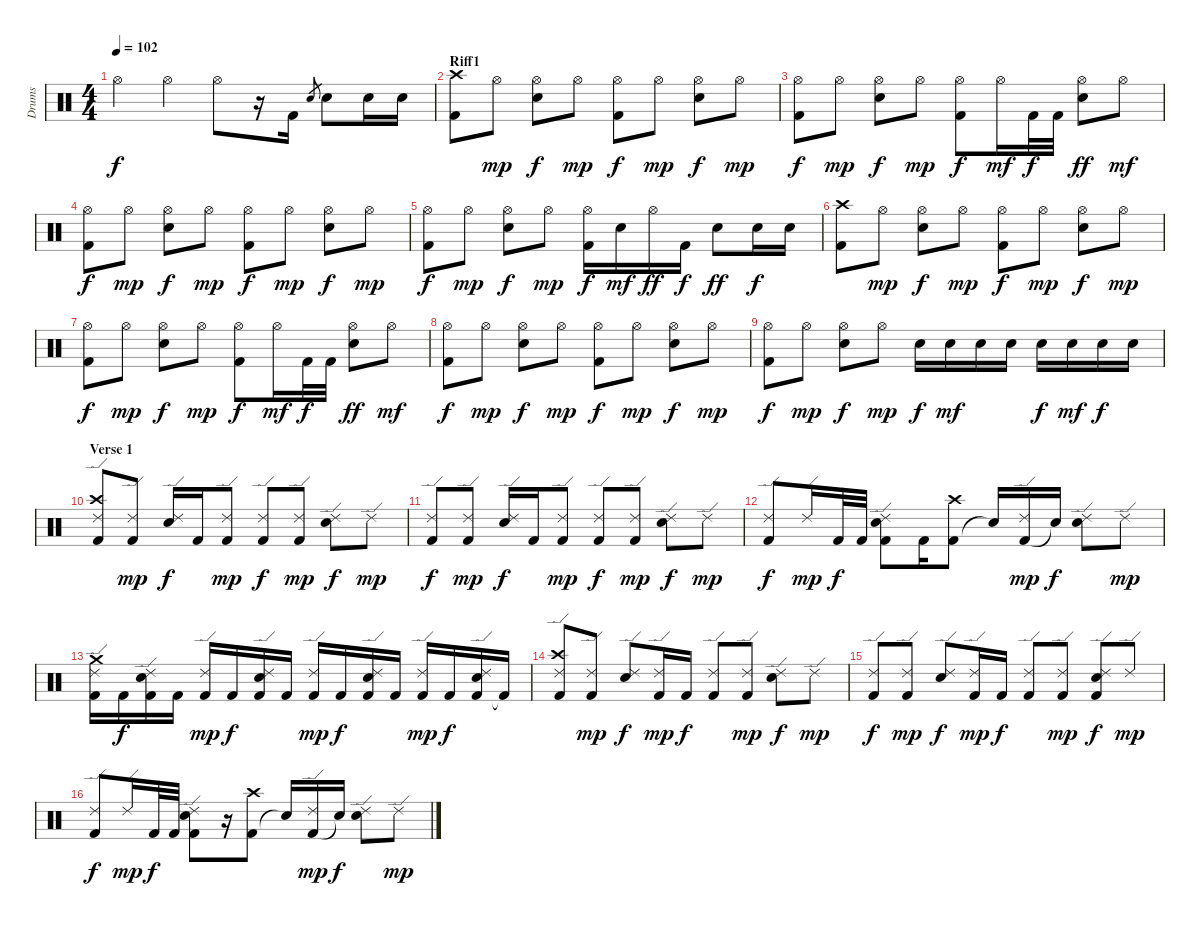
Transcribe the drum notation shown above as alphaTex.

\track ("Drums" "Drums") {instrument percussion}
\staff {score}
\articulation defaults
\ts (4 4)
\tempo 102
\clef neutral
\ks c "Hi-Hat (open)".4{dy f} "Hi-Hat (open)".4 "Hi-Hat (open)".8
r.16 "Kick (hit) 2".16 "Electric Snare (hit)".8{gr} "Electric Snare (hit)".8 "Electric Snare (hit)".16 "Electric Snare (hit)".16 |
\section ("" "Riff1")
("Kick (hit) 2" "Crash high (hit)").8 "Hi-Hat (open)".8{dy mp} ("Hi-Hat (open)" "Electric Snare (hit)").8{dy f} "Hi-Hat (open)".8{dy mp} ("Kick (hit) 2" "Hi-Hat (open)").8{dy f} "Hi-Hat (open)".8{dy mp} ("Hi-Hat (open)" "Electric Snare (hit)").8{dy f} "Hi-Hat (open)".8{dy mp} |
("Kick (hit) 2" "Hi-Hat (open)").8{dy f} "Hi-Hat (open)".8{dy mp} ("Hi-Hat (open)" "Electric Snare (hit)").8{dy f} "Hi-Hat (open)".8{dy mp} ("Kick (hit) 2" "Hi-Hat (open)").8{dy f} "Hi-Hat (open)".16{dy mf} "Kick (hit) 2".32{dy f} "Kick (hit) 2".32 ("Hi-Hat (open)" "Electric Snare (hit)").8{dy ff} "Hi-Hat (open)".8{dy mf} |
("Kick (hit) 2" "Hi-Hat (open)").8{dy f} "Hi-Hat (open)".8{dy mp} ("Hi-Hat (open)" "Electric Snare (hit)").8{dy f} "Hi-Hat (open)".8{dy mp} ("Kick (hit) 2" "Hi-Hat (open)").8{dy f} "Hi-Hat (open)".8{dy mp} ("Hi-Hat (open)" "Electric Snare (hit)").8{dy f} "Hi-Hat (open)".8{dy mp} |
("Kick (hit) 2" "Hi-Hat (open)").8{dy f} "Hi-Hat (open)".8{dy mp} ("Hi-Hat (open)" "Electric Snare (hit)").8{dy f} "Hi-Hat (open)".8{dy mp} ("Kick (hit) 2" "Hi-Hat (open)").16{dy f} "Electric Snare (hit)".16{dy mf} "Hi-Hat (open)".16{dy ff} "Kick (hit) 2".16{dy f} "Electric Snare (hit)".8{dy ff} "Electric Snare (hit)".16{dy f} "Electric Snare (hit)".16 |
("Kick (hit) 2" "Crash high (hit)").8 "Hi-Hat (open)".8{dy mp} ("Hi-Hat (open)" "Electric Snare (hit)").8{dy f} "Hi-Hat (open)".8{dy mp} ("Kick (hit) 2" "Hi-Hat (open)").8{dy f} "Hi-Hat (open)".8{dy mp} ("Hi-Hat (open)" "Electric Snare (hit)").8{dy f} "Hi-Hat (open)".8{dy mp} |
("Kick (hit) 2" "Hi-Hat (open)").8{dy f} "Hi-Hat (open)".8{dy mp} ("Hi-Hat (open)" "Electric Snare (hit)").8{dy f} "Hi-Hat (open)".8{dy mp} ("Kick (hit) 2" "Hi-Hat (open)").8{dy f} "Hi-Hat (open)".16{dy mf} "Kick (hit) 2".32{dy f} "Kick (hit) 2".32 ("Hi-Hat (open)" "Electric Snare (hit)").8{dy ff} "Hi-Hat (open)".8{dy mf} |
("Kick (hit) 2" "Hi-Hat (open)").8{dy f} "Hi-Hat (open)".8{dy mp} ("Hi-Hat (open)" "Electric Snare (hit)").8{dy f} "Hi-Hat (open)".8{dy mp} ("Kick (hit) 2" "Hi-Hat (open)").8{dy f} "Hi-Hat (open)".8{dy mp} ("Hi-Hat (open)" "Electric Snare (hit)").8{dy f} "Hi-Hat (open)".8{dy mp} |
("Kick (hit) 2" "Hi-Hat (open)").8{dy f} "Hi-Hat (open)".8{dy mp} ("Hi-Hat (open)" "Electric Snare (hit)").8{dy f} "Hi-Hat (open)".8{dy mp} "Electric Snare (hit)".16{dy f} "Electric Snare (hit)".16{dy mf} "Electric Snare (hit)".16 "Electric Snare (hit)".16 "Electric Snare (hit)".16{dy f} "Electric Snare (hit)".16{dy mf} "Electric Snare (hit)".16{dy f} "Electric Snare (hit)".16 |
\section ("" "Verse 1")
("Kick (hit) 2" "Ride (edge) 2" "Crash high (hit)").8 ("Kick (hit) 2" "Ride (edge) 2").8{dy mp} ("Ride (edge) 2" "Electric Snare (hit)").16{dy f} "Kick (hit) 2".16 ("Kick (hit) 2" "Ride (edge) 2").8{dy mp} ("Kick (hit) 2" "Ride (edge) 2").8{dy f} ("Kick (hit) 2" "Ride (edge) 2").8{dy mp} ("Ride (edge) 2" "Electric Snare (hit)").8{dy f} "Ride (edge) 2".8{dy mp} |
("Kick (hit) 2" "Ride (edge) 2").8{dy f} ("Kick (hit) 2" "Ride (edge) 2").8{dy mp} ("Ride (edge) 2" "Electric Snare (hit)").16{dy f} "Kick (hit) 2".16 ("Kick (hit) 2" "Ride (edge) 2").8{dy mp} ("Kick (hit) 2" "Ride (edge) 2").8{dy f} ("Kick (hit) 2" "Ride (edge) 2").8{dy mp} ("Ride (edge) 2" "Electric Snare (hit)").8{dy f} "Ride (edge) 2".8{dy mp} |
("Kick (hit) 2" "Ride (edge) 2").8{dy f} "Ride (edge) 2".16{dy mp} "Kick (hit) 2".32{dy f} "Kick (hit) 2".32 ("Kick (hit) 2" "Ride (edge) 2" "Electric Snare (hit)").8 "Kick (hit) 2".16 ("Kick (hit) 2" "Crash high (hit)").8 "Snare (hit)"{t}.16 ("Kick (hit) 2" "Ride (edge) 2").16{dy mp} "Snare (hit)"{t}.16{dy f} ("Ride (edge) 2" "Electric Snare (hit)").8 "Ride (edge) 2".8{dy mp} |
("Kick (hit) 2" "Ride (edge) 2" "Crash medium (hit)").16 "Kick (hit) 2".16{dy f} ("Kick (hit) 2" "Ride (edge) 2" "Electric Snare (hit)").16 "Kick (hit) 2".16 ("Kick (hit) 2" "Ride (edge) 2").16{dy mp} "Kick (hit) 2".16{dy f} ("Kick (hit) 2" "Ride (edge) 2" "Electric Snare (hit)").16 "Kick (hit) 2".16 ("Kick (hit) 2" "Ride (edge) 2").16{dy mp} "Kick (hit) 2".16{dy f} ("Kick (hit) 2" "Ride (edge) 2" "Electric Snare (hit)").16 "Kick (hit) 2".16 ("Kick (hit) 2" "Ride (edge) 2").16{dy mp} "Kick (hit) 2".16{dy f} ("Kick (hit) 2" "Ride (edge) 2" "Electric Snare (hit)").16 "Kick (hit) 2"{t}.16 |
("Kick (hit) 2" "Ride (edge) 2" "Crash high (hit)").8 ("Kick (hit) 2" "Ride (edge) 2").8{dy mp} ("Ride (edge) 2" "Electric Snare (hit)").8{dy f} ("Kick (hit) 2" "Ride (edge) 2").16{dy mp} "Kick (hit) 2".16{dy f} ("Kick (hit) 2" "Ride (edge) 2").8 ("Kick (hit) 2" "Ride (edge) 2").8{dy mp} ("Ride (edge) 2" "Electric Snare (hit)").8{dy f} "Ride (edge) 2".8{dy mp} |
("Kick (hit) 2" "Ride (edge) 2").8{dy f} ("Kick (hit) 2" "Ride (edge) 2").8{dy mp} ("Ride (edge) 2" "Electric Snare (hit)").8{dy f} ("Kick (hit) 2" "Ride (edge) 2").16{dy mp} "Kick (hit) 2".16{dy f} ("Kick (hit) 2" "Ride (edge) 2").8 ("Kick (hit) 2" "Ride (edge) 2").8{dy mp} ("Kick (hit) 2" "Ride (edge) 2" "Electric Snare (hit)").8{dy f} "Ride (edge) 2".8{dy mp} |
("Kick (hit) 2" "Ride (edge) 2").8{dy f} "Ride (edge) 2".16{dy mp} "Kick (hit) 2".32{dy f} "Kick (hit) 2".32 ("Kick (hit) 2" "Ride (edge) 2" "Electric Snare (hit)").8 r.16 ("Kick (hit) 2" "Crash high (hit)").8 "Snare (hit)"{t}.16 ("Kick (hit) 2" "Ride (edge) 2").16{dy mp} "Snare (hit)"{t}.16{dy f} ("Ride (edge) 2" "Electric Snare (hit)").8 "Ride (edge) 2".8{dy mp}
